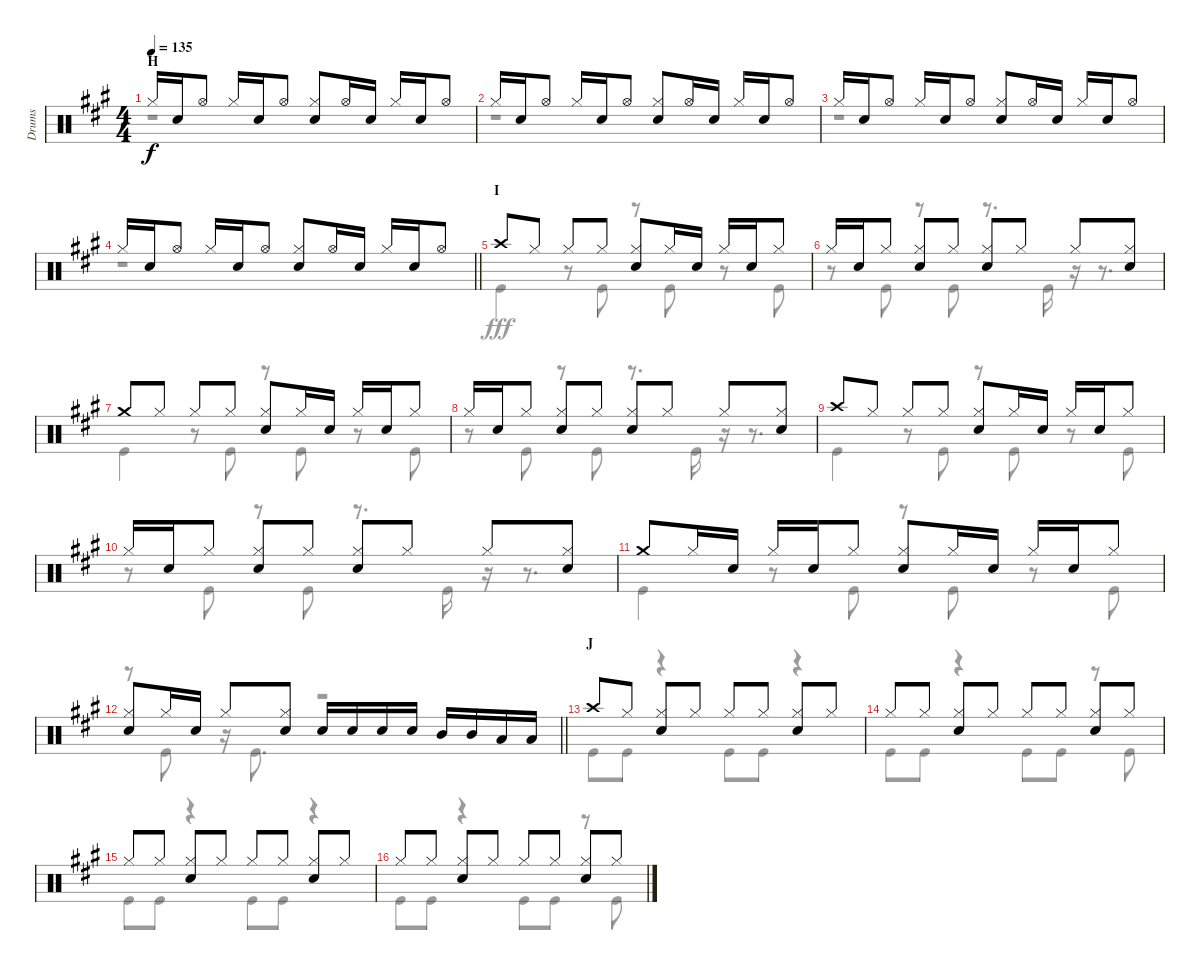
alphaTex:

\track ("Drums" "Drums") {instrument percussion}
\staff {score}
\articulation defaults
\voice
\ts (4 4)
\section ("" "H")
\tempo 135
\clef neutral
\ks a "Hi-Hat (closed)".16{dy f} "Snare (hit) 2".16 "Hi-Hat (open)".8 "Hi-Hat (closed)".16 "Snare (hit) 2".16 "Hi-Hat (open)".8
("Hi-Hat (closed)" "Snare (hit) 2").8 "Hi-Hat (open)".16 "Snare (hit) 2".16 "Hi-Hat (closed)".16 "Snare (hit) 2".16 "Hi-Hat (open)".8 |
"Hi-Hat (closed)".16 "Snare (hit) 2".16 "Hi-Hat (open)".8 "Hi-Hat (closed)".16 "Snare (hit) 2".16 "Hi-Hat (open)".8 ("Hi-Hat (closed)" "Snare (hit) 2").8 "Hi-Hat (open)".16 "Snare (hit) 2".16 "Hi-Hat (closed)".16 "Snare (hit) 2".16 "Hi-Hat (open)".8 |
"Hi-Hat (closed)".16 "Snare (hit) 2".16 "Hi-Hat (open)".8 "Hi-Hat (closed)".16 "Snare (hit) 2".16 "Hi-Hat (open)".8 ("Hi-Hat (closed)" "Snare (hit) 2").8 "Hi-Hat (open)".16 "Snare (hit) 2".16 "Hi-Hat (closed)".16 "Snare (hit) 2".16 "Hi-Hat (open)".8 |
\barLineRight lightlight "Hi-Hat (closed)".16 "Snare (hit) 2".16 "Hi-Hat (open)".8 "Hi-Hat (closed)".16 "Snare (hit) 2".16 "Hi-Hat (open)".8
("Hi-Hat (closed)" "Snare (hit) 2").8 "Hi-Hat (open)".16 "Snare (hit) 2".16 "Hi-Hat (closed)".16 "Snare (hit) 2".16 "Hi-Hat (open)".8 |
\section ("" "I")
"Crash high (hit)".8 "Hi-Hat (closed)".8 "Hi-Hat (closed)".8 "Hi-Hat (closed)".8 ("Hi-Hat (closed)" "Snare (hit) 2").8 "Hi-Hat (closed)".16 "Snare (hit) 2".16 "Hi-Hat (closed)".16 "Snare (hit) 2".16 "Hi-Hat (closed)".8 |
"Hi-Hat (closed)".16 "Snare (hit) 2".16 "Hi-Hat (closed)".8 ("Hi-Hat (closed)" "Snare (hit) 2").8 "Hi-Hat (closed)".8 ("Hi-Hat (closed)" "Snare (hit) 2").8 "Hi-Hat (closed)".8 "Hi-Hat (closed)".8 ("Hi-Hat (closed)" "Snare (hit) 2").8 |
"Crash medium (hit)".8 "Hi-Hat (closed)".8 "Hi-Hat (closed)".8 "Hi-Hat (closed)".8 ("Hi-Hat (closed)" "Snare (hit) 2").8 "Hi-Hat (closed)".16 "Snare (hit) 2".16 "Hi-Hat (closed)".16 "Snare (hit) 2".16 "Hi-Hat (closed)".8 |
"Hi-Hat (closed)".16 "Snare (hit) 2".16 "Hi-Hat (closed)".8 ("Hi-Hat (closed)" "Snare (hit) 2").8 "Hi-Hat (closed)".8 ("Hi-Hat (closed)" "Snare (hit) 2").8 "Hi-Hat (closed)".8 "Hi-Hat (closed)".8 ("Hi-Hat (closed)" "Snare (hit) 2").8 |
"Crash high (hit)".8 "Hi-Hat (closed)".8 "Hi-Hat (closed)".8 "Hi-Hat (closed)".8 ("Hi-Hat (closed)" "Snare (hit) 2").8 "Hi-Hat (closed)".16 "Snare (hit) 2".16 "Hi-Hat (closed)".16 "Snare (hit) 2".16 "Hi-Hat (closed)".8 |
"Hi-Hat (closed)".16 "Snare (hit) 2".16 "Hi-Hat (closed)".8 ("Hi-Hat (closed)" "Snare (hit) 2").8 "Hi-Hat (closed)".8 ("Hi-Hat (closed)" "Snare (hit) 2").8 "Hi-Hat (closed)".8 "Hi-Hat (closed)".8 ("Hi-Hat (closed)" "Snare (hit) 2").8 |
"Crash medium (hit)".8 "Hi-Hat (closed)".16 "Snare (hit) 2".16 "Hi-Hat (closed)".16 "Snare (hit) 2".16 "Hi-Hat (closed)".8 ("Hi-Hat (closed)" "Snare (hit) 2").8 "Hi-Hat (closed)".16 "Snare (hit) 2".16 "Hi-Hat (closed)".16 "Snare (hit) 2".16 "Hi-Hat (closed)".8 |
\barLineRight lightlight
("Hi-Hat (closed)" "Snare (hit) 2").8 "Hi-Hat (closed)".16 "Snare (hit) 2".16 "Hi-Hat (closed)".8 ("Hi-Hat (closed)" "Snare (hit) 2").8 "Snare (hit) 2".16 "Snare (hit) 2".16 "Snare (hit) 2".16 "Snare (hit) 2".16 "Mid Tom (hit)".16 "Mid Tom (hit)".16 "Low Tom (hit)".16 "Low Tom (hit)".16 |
\section ("" "J")
"Crash high (hit)".8 "Hi-Hat (closed)".8 ("Hi-Hat (closed)" "Snare (hit) 2").8 "Hi-Hat (closed)".8 "Hi-Hat (closed)".8 "Hi-Hat (closed)".8 ("Hi-Hat (closed)" "Snare (hit) 2").8 "Hi-Hat (closed)".8 |
"Hi-Hat (closed)".8 "Hi-Hat (closed)".8 ("Hi-Hat (closed)" "Snare (hit) 2").8 "Hi-Hat (closed)".8 "Hi-Hat (closed)".8 "Hi-Hat (closed)".8 ("Hi-Hat (closed)" "Snare (hit) 2").8 "Hi-Hat (closed)".8 |
"Hi-Hat (closed)".8 "Hi-Hat (closed)".8 ("Hi-Hat (closed)" "Snare (hit) 2").8 "Hi-Hat (closed)".8 "Hi-Hat (closed)".8 "Hi-Hat (closed)".8 ("Hi-Hat (closed)" "Snare (hit) 2").8 "Hi-Hat (closed)".8 |
"Hi-Hat (closed)".8 "Hi-Hat (closed)".8 ("Hi-Hat (closed)" "Snare (hit) 2").8 "Hi-Hat (closed)".8 "Hi-Hat (closed)".8 "Hi-Hat (closed)".8 ("Hi-Hat (closed)" "Snare (hit) 2").8 "Hi-Hat (closed)".8
\voice
\clef neutral
\ottava regular
\simile none
\ks a
r.1{dy fff} |
r.1 |
r.1 |
\barLineRight lightlight
r.1 |
"Kick (hit)".4 r.8 "Kick (hit)".8 r.8 "Kick (hit)".8 r.8 "Kick (hit)".8 |
r.8 "Kick (hit)".8 r.8 "Kick (hit)".8 r.8{d} "Kick (hit)".16 r.16 r.8{d} |
"Kick (hit)".4 r.8 "Kick (hit)".8 r.8 "Kick (hit)".8 r.8 "Kick (hit)".8 |
r.8 "Kick (hit)".8 r.8 "Kick (hit)".8 r.8{d} "Kick (hit)".16 r.16 r.8{d} |
"Kick (hit)".4 r.8 "Kick (hit)".8 r.8 "Kick (hit)".8 r.8 "Kick (hit)".8 |
r.8 "Kick (hit)".8 r.8 "Kick (hit)".8 r.8{d} "Kick (hit)".16 r.16 r.8{d} |
"Kick (hit)".4 r.8 "Kick (hit)".8 r.8 "Kick (hit)".8 r.8 "Kick (hit)".8 |
\barLineRight lightlight
r.8 "Kick (hit)".8 r.16 "Kick (hit)".8{d} r.2 |
"Kick (hit)".8 "Kick (hit)".8 r.4 "Kick (hit)".8 "Kick (hit)".8 r.4 |
"Kick (hit)".8 "Kick (hit)".8 r.4 "Kick (hit)".8 "Kick (hit)".8 r.8 "Kick (hit)".8 |
"Kick (hit)".8 "Kick (hit)".8 r.4 "Kick (hit)".8 "Kick (hit)".8 r.4 |
"Kick (hit)".8 "Kick (hit)".8 r.4 "Kick (hit)".8 "Kick (hit)".8 r.8 "Kick (hit)".8
